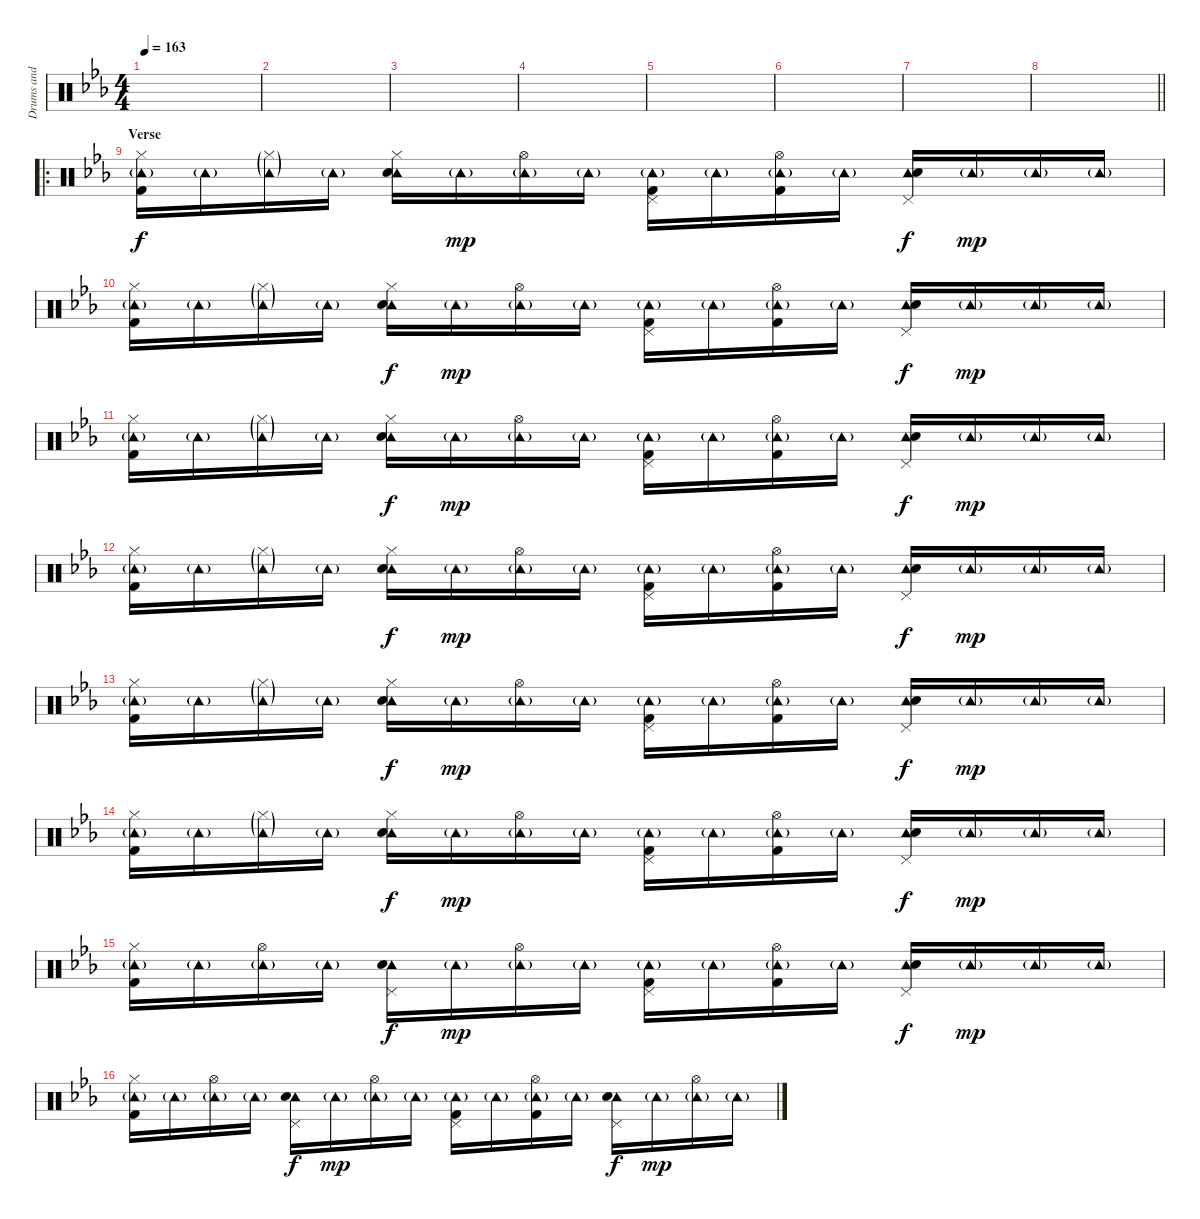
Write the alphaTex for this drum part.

\track ("Drums and Perc." "Drums and ") {instrument percussion}
\staff {score}
\articulation defaults
\ts (4 4)
\tempo 163
\clef neutral
\ks cminor
|
|
|
|
|
|
|
\barLineRight lightlight
|
\ro
\section ("" "Verse")
("Hi-Hat (closed)" "Tambourine (hit)"{g} "Kick (hit) 2").16 "Tambourine (hit)"{g}.16 ("Hi-Hat (closed)"{g} "Tambourine (hit)"{g}).16 "Tambourine (hit)"{g}.16 ("Hi-Hat (closed)" "Tambourine (hit)" "Snare (hit) 2").16{dy f} "Tambourine (hit)"{g}.16{dy mp} ("Hi-Hat (open)" "Tambourine (hit)"{g}).16 "Tambourine (hit)"{g}.16 ("Pedal Hi-Hat (hit)" "Tambourine (hit)"{g} "Kick (hit) 2").16 "Tambourine (hit)"{g}.16 ("Hi-Hat (open)" "Tambourine (hit)"{g} "Kick (hit) 2").16 "Tambourine (hit)"{g}.16 ("Pedal Hi-Hat (hit)" "Tambourine (hit)" "Snare (hit) 2").16{dy f} "Tambourine (hit)"{g}.16{dy mp} "Tambourine (hit)"{g}.16 "Tambourine (hit)"{g}.16 |
("Hi-Hat (closed)" "Tambourine (hit)"{g} "Kick (hit) 2").16 "Tambourine (hit)"{g}.16 ("Hi-Hat (closed)"{g} "Tambourine (hit)"{g}).16 "Tambourine (hit)"{g}.16 ("Hi-Hat (closed)" "Tambourine (hit)" "Snare (hit) 2").16{dy f} "Tambourine (hit)"{g}.16{dy mp} ("Hi-Hat (open)" "Tambourine (hit)"{g}).16 "Tambourine (hit)"{g}.16 ("Pedal Hi-Hat (hit)" "Tambourine (hit)"{g} "Kick (hit) 2").16 "Tambourine (hit)"{g}.16 ("Hi-Hat (open)" "Tambourine (hit)"{g} "Kick (hit) 2").16 "Tambourine (hit)"{g}.16 ("Pedal Hi-Hat (hit)" "Tambourine (hit)" "Snare (hit) 2").16{dy f} "Tambourine (hit)"{g}.16{dy mp} "Tambourine (hit)"{g}.16 "Tambourine (hit)"{g}.16 |
("Hi-Hat (closed)" "Tambourine (hit)"{g} "Kick (hit) 2").16 "Tambourine (hit)"{g}.16 ("Hi-Hat (closed)"{g} "Tambourine (hit)"{g}).16 "Tambourine (hit)"{g}.16 ("Hi-Hat (closed)" "Tambourine (hit)" "Snare (hit) 2").16{dy f} "Tambourine (hit)"{g}.16{dy mp} ("Hi-Hat (open)" "Tambourine (hit)"{g}).16 "Tambourine (hit)"{g}.16 ("Pedal Hi-Hat (hit)" "Tambourine (hit)"{g} "Kick (hit) 2").16 "Tambourine (hit)"{g}.16 ("Hi-Hat (open)" "Tambourine (hit)"{g} "Kick (hit) 2").16 "Tambourine (hit)"{g}.16 ("Pedal Hi-Hat (hit)" "Tambourine (hit)" "Snare (hit) 2").16{dy f} "Tambourine (hit)"{g}.16{dy mp} "Tambourine (hit)"{g}.16 "Tambourine (hit)"{g}.16 |
("Hi-Hat (closed)" "Tambourine (hit)"{g} "Kick (hit) 2").16 "Tambourine (hit)"{g}.16 ("Hi-Hat (closed)"{g} "Tambourine (hit)"{g}).16 "Tambourine (hit)"{g}.16 ("Hi-Hat (closed)" "Tambourine (hit)" "Snare (hit) 2").16{dy f} "Tambourine (hit)"{g}.16{dy mp} ("Hi-Hat (open)" "Tambourine (hit)"{g}).16 "Tambourine (hit)"{g}.16 ("Pedal Hi-Hat (hit)" "Tambourine (hit)"{g} "Kick (hit) 2").16 "Tambourine (hit)"{g}.16 ("Hi-Hat (open)" "Tambourine (hit)"{g} "Kick (hit) 2").16 "Tambourine (hit)"{g}.16 ("Pedal Hi-Hat (hit)" "Tambourine (hit)" "Snare (hit) 2").16{dy f} "Tambourine (hit)"{g}.16{dy mp} "Tambourine (hit)"{g}.16 "Tambourine (hit)"{g}.16 |
("Hi-Hat (closed)" "Tambourine (hit)"{g} "Kick (hit) 2").16 "Tambourine (hit)"{g}.16 ("Hi-Hat (closed)"{g} "Tambourine (hit)"{g}).16 "Tambourine (hit)"{g}.16 ("Hi-Hat (closed)" "Tambourine (hit)" "Snare (hit) 2").16{dy f} "Tambourine (hit)"{g}.16{dy mp} ("Hi-Hat (open)" "Tambourine (hit)"{g}).16 "Tambourine (hit)"{g}.16 ("Pedal Hi-Hat (hit)" "Tambourine (hit)"{g} "Kick (hit) 2").16 "Tambourine (hit)"{g}.16 ("Hi-Hat (open)" "Tambourine (hit)"{g} "Kick (hit) 2").16 "Tambourine (hit)"{g}.16 ("Pedal Hi-Hat (hit)" "Tambourine (hit)" "Snare (hit) 2").16{dy f} "Tambourine (hit)"{g}.16{dy mp} "Tambourine (hit)"{g}.16 "Tambourine (hit)"{g}.16 |
("Hi-Hat (closed)" "Tambourine (hit)"{g} "Kick (hit) 2").16 "Tambourine (hit)"{g}.16 ("Hi-Hat (closed)"{g} "Tambourine (hit)"{g}).16 "Tambourine (hit)"{g}.16 ("Hi-Hat (closed)" "Tambourine (hit)" "Snare (hit) 2").16{dy f} "Tambourine (hit)"{g}.16{dy mp} ("Hi-Hat (open)" "Tambourine (hit)"{g}).16 "Tambourine (hit)"{g}.16 ("Pedal Hi-Hat (hit)" "Tambourine (hit)"{g} "Kick (hit) 2").16 "Tambourine (hit)"{g}.16 ("Hi-Hat (open)" "Tambourine (hit)"{g} "Kick (hit) 2").16 "Tambourine (hit)"{g}.16 ("Pedal Hi-Hat (hit)" "Tambourine (hit)" "Snare (hit) 2").16{dy f} "Tambourine (hit)"{g}.16{dy mp} "Tambourine (hit)"{g}.16 "Tambourine (hit)"{g}.16 |
("Hi-Hat (closed)" "Tambourine (hit)"{g} "Kick (hit) 2").16 "Tambourine (hit)"{g}.16 ("Hi-Hat (open)" "Tambourine (hit)"{g}).16 "Tambourine (hit)"{g}.16 ("Pedal Hi-Hat (hit)" "Tambourine (hit)" "Snare (hit) 2").16{dy f} "Tambourine (hit)"{g}.16{dy mp} ("Hi-Hat (open)" "Tambourine (hit)"{g}).16 "Tambourine (hit)"{g}.16 ("Pedal Hi-Hat (hit)" "Tambourine (hit)"{g} "Kick (hit) 2").16 "Tambourine (hit)"{g}.16 ("Hi-Hat (open)" "Tambourine (hit)"{g} "Kick (hit) 2").16 "Tambourine (hit)"{g}.16 ("Pedal Hi-Hat (hit)" "Tambourine (hit)" "Snare (hit) 2").16{dy f} "Tambourine (hit)"{g}.16{dy mp} "Tambourine (hit)"{g}.16 "Tambourine (hit)"{g}.16 |
("Hi-Hat (closed)" "Tambourine (hit)"{g} "Kick (hit) 2").16 "Tambourine (hit)"{g}.16 ("Hi-Hat (open)" "Tambourine (hit)"{g}).16 "Tambourine (hit)"{g}.16 ("Pedal Hi-Hat (hit)" "Tambourine (hit)" "Snare (hit) 2").16{dy f} "Tambourine (hit)"{g}.16{dy mp} ("Hi-Hat (open)" "Tambourine (hit)"{g}).16 "Tambourine (hit)"{g}.16 ("Pedal Hi-Hat (hit)" "Tambourine (hit)"{g} "Kick (hit) 2").16 "Tambourine (hit)"{g}.16 ("Hi-Hat (open)" "Tambourine (hit)"{g} "Kick (hit) 2").16 "Tambourine (hit)"{g}.16 ("Pedal Hi-Hat (hit)" "Tambourine (hit)" "Snare (hit) 2").16{dy f} "Tambourine (hit)"{g}.16{dy mp} ("Hi-Hat (open)" "Tambourine (hit)"{g}).16 "Tambourine (hit)"{g}.16
